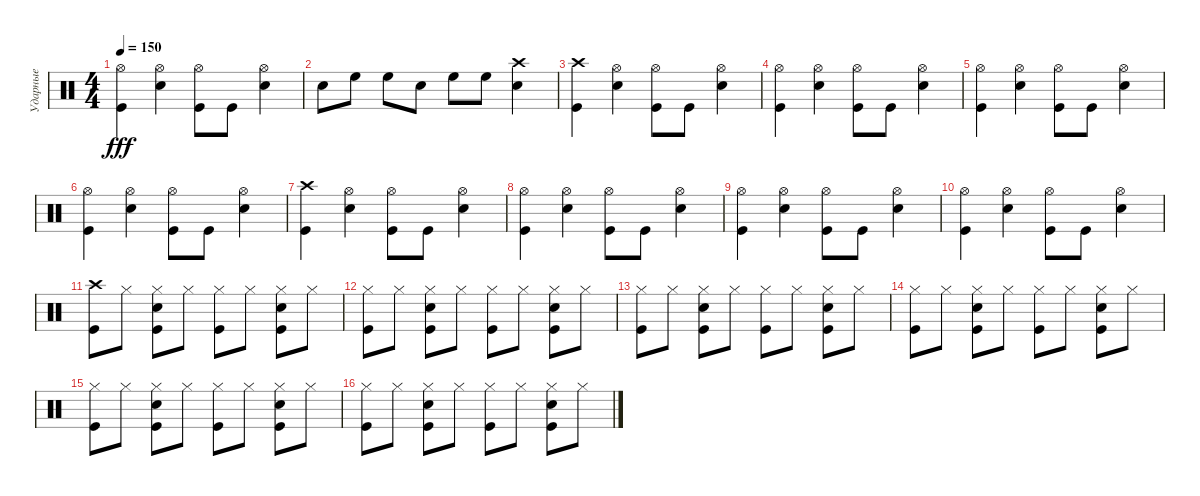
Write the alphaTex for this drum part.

\track ("Ударные" "Ударные") {instrument percussion}
\staff {score}
\articulation defaults
\ts (4 4)
\tempo 150
\clef neutral
\ks c
("Hi-Hat (open)" "Kick (hit)").4{dy fff} ("Hi-Hat (open)" "Electric Snare (hit)").4 ("Hi-Hat (open)" "Kick (hit)").8 "Kick (hit)".8 ("Hi-Hat (open)" "Electric Snare (hit)").4 |
"Electric Snare (hit)".8 "High Floor Tom (hit)".8 "High Floor Tom (hit)".8 "Electric Snare (hit)".8 "High Floor Tom (hit)".8 "High Floor Tom (hit)".8 ("Electric Snare (hit)" "Crash high (hit)").4 |
("Crash high (hit)" "Kick (hit)").4 ("Hi-Hat (open)" "Electric Snare (hit)").4 ("Hi-Hat (open)" "Kick (hit)").8 "Kick (hit)".8 ("Hi-Hat (open)" "Electric Snare (hit)").4 |
("Hi-Hat (open)" "Kick (hit)").4 ("Hi-Hat (open)" "Electric Snare (hit)").4 ("Hi-Hat (open)" "Kick (hit)").8 "Kick (hit)".8 ("Hi-Hat (open)" "Electric Snare (hit)").4 |
("Hi-Hat (open)" "Kick (hit)").4 ("Hi-Hat (open)" "Electric Snare (hit)").4 ("Hi-Hat (open)" "Kick (hit)").8 "Kick (hit)".8 ("Hi-Hat (open)" "Electric Snare (hit)").4 |
("Hi-Hat (open)" "Kick (hit)").4 ("Hi-Hat (open)" "Electric Snare (hit)").4 ("Hi-Hat (open)" "Kick (hit)").8 "Kick (hit)".8 ("Hi-Hat (open)" "Electric Snare (hit)").4 |
("Crash high (hit)" "Kick (hit)").4 ("Hi-Hat (open)" "Electric Snare (hit)").4 ("Hi-Hat (open)" "Kick (hit)").8 "Kick (hit)".8 ("Hi-Hat (open)" "Electric Snare (hit)").4 |
("Hi-Hat (open)" "Kick (hit)").4 ("Hi-Hat (open)" "Electric Snare (hit)").4 ("Hi-Hat (open)" "Kick (hit)").8 "Kick (hit)".8 ("Hi-Hat (open)" "Electric Snare (hit)").4 |
("Hi-Hat (open)" "Kick (hit)").4 ("Hi-Hat (open)" "Electric Snare (hit)").4 ("Hi-Hat (open)" "Kick (hit)").8 "Kick (hit)".8 ("Hi-Hat (open)" "Electric Snare (hit)").4 |
("Hi-Hat (open)" "Kick (hit)").4 ("Hi-Hat (open)" "Electric Snare (hit)").4 ("Hi-Hat (open)" "Kick (hit)").8 "Kick (hit)".8 ("Hi-Hat (open)" "Electric Snare (hit)").4 |
("Crash high (hit)" "Kick (hit)").8 "Hi-Hat (closed)".8 ("Hi-Hat (closed)" "Electric Snare (hit)" "Kick (hit)").8 "Hi-Hat (closed)".8 ("Hi-Hat (closed)" "Kick (hit)").8 "Hi-Hat (closed)".8 ("Hi-Hat (closed)" "Electric Snare (hit)" "Kick (hit)").8 "Hi-Hat (closed)".8 |
("Kick (hit)" "Hi-Hat (closed)").8 "Hi-Hat (closed)".8 ("Hi-Hat (closed)" "Electric Snare (hit)" "Kick (hit)").8 "Hi-Hat (closed)".8 ("Hi-Hat (closed)" "Kick (hit)").8 "Hi-Hat (closed)".8 ("Hi-Hat (closed)" "Kick (hit)" "Electric Snare (hit)").8 "Hi-Hat (closed)".8 |
("Kick (hit)" "Hi-Hat (closed)").8 "Hi-Hat (closed)".8 ("Hi-Hat (closed)" "Electric Snare (hit)" "Kick (hit)").8 "Hi-Hat (closed)".8 ("Hi-Hat (closed)" "Kick (hit)").8 "Hi-Hat (closed)".8 ("Hi-Hat (closed)" "Kick (hit)" "Electric Snare (hit)").8 "Hi-Hat (closed)".8 |
("Kick (hit)" "Hi-Hat (closed)").8 "Hi-Hat (closed)".8 ("Hi-Hat (closed)" "Electric Snare (hit)" "Kick (hit)").8 "Hi-Hat (closed)".8 ("Hi-Hat (closed)" "Kick (hit)").8 "Hi-Hat (closed)".8 ("Hi-Hat (closed)" "Kick (hit)" "Electric Snare (hit)").8 "Hi-Hat (closed)".8 |
("Kick (hit)" "Hi-Hat (closed)").8 "Hi-Hat (closed)".8 ("Hi-Hat (closed)" "Electric Snare (hit)" "Kick (hit)").8 "Hi-Hat (closed)".8 ("Hi-Hat (closed)" "Kick (hit)").8 "Hi-Hat (closed)".8 ("Hi-Hat (closed)" "Kick (hit)" "Electric Snare (hit)").8 "Hi-Hat (closed)".8 |
("Kick (hit)" "Hi-Hat (closed)").8 "Hi-Hat (closed)".8 ("Hi-Hat (closed)" "Electric Snare (hit)" "Kick (hit)").8 "Hi-Hat (closed)".8 ("Hi-Hat (closed)" "Kick (hit)").8 "Hi-Hat (closed)".8 ("Hi-Hat (closed)" "Kick (hit)" "Electric Snare (hit)").8 "Hi-Hat (closed)".8
